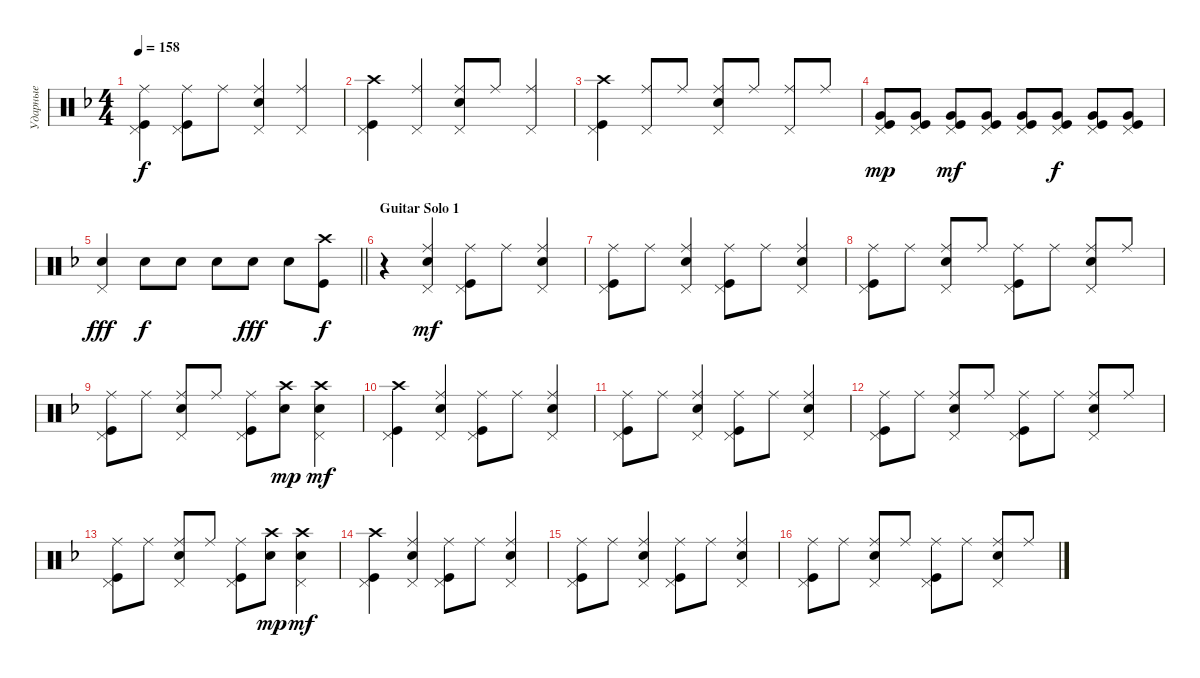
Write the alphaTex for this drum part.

\track ("Ударные" "Ударные") {instrument percussion}
\staff {score}
\articulation defaults
\ts (4 4)
\tempo 158
\clef neutral
\ks dminor
("Kick (hit)" "Pedal Hi-Hat (hit)" "Ride (middle)").4{dy f} ("Kick (hit)" "Pedal Hi-Hat (hit)" "Ride (middle)").8 "Ride (middle)".8 ("Snare (hit) 2" "Pedal Hi-Hat (hit)" "Ride (middle)").4 ("Ride (middle)" "Pedal Hi-Hat (hit)").4 |
("Kick (hit)" "Crash high (hit)" "Pedal Hi-Hat (hit)").4 ("Ride (middle)" "Pedal Hi-Hat (hit)").4 ("Snare (hit) 2" "Pedal Hi-Hat (hit)" "Ride (middle)").8 "Ride (middle)".8 ("Pedal Hi-Hat (hit)" "Ride (middle)").4 |
("Kick (hit)" "Crash high (hit)" "Pedal Hi-Hat (hit)").4 ("Ride (middle)" "Pedal Hi-Hat (hit)").8 "Ride (middle)".8 ("Snare (hit) 2" "Ride (middle)" "Pedal Hi-Hat (hit)").8 "Ride (middle)".8 ("Ride (middle)" "Pedal Hi-Hat (hit)").8 "Ride (middle)".8 |
("Kick (hit)" "Pedal Hi-Hat (hit)" "Very Low Tom (hit)").8{dy mp} ("Kick (hit)" "Pedal Hi-Hat (hit)" "Very Low Tom (hit)").8 ("Kick (hit)" "Pedal Hi-Hat (hit)" "Very Low Tom (hit)").8{dy mf} ("Kick (hit)" "Pedal Hi-Hat (hit)" "Very Low Tom (hit)").8 ("Kick (hit)" "Pedal Hi-Hat (hit)" "Very Low Tom (hit)").8 ("Pedal Hi-Hat (hit)" "Kick (hit)" "Very Low Tom (hit)").8{dy f} ("Kick (hit)" "Pedal Hi-Hat (hit)" "Very Low Tom (hit)").8 ("Kick (hit)" "Pedal Hi-Hat (hit)" "Very Low Tom (hit)").8 |
\barLineRight lightlight
("Snare (hit) 2" "Pedal Hi-Hat (hit)").4{dy fff} "Snare (hit) 2".8{dy f} "Snare (hit) 2".8 "Snare (hit) 2".8 "Snare (hit) 2".8{dy fff} "Snare (hit) 2".8 ("Kick (hit)" "Crash high (hit)").8{dy f} |
\section ("" "Guitar Solo 1")
r.4 ("Ride (middle)" "Snare (hit) 2" "Pedal Hi-Hat (hit)").4{dy mf} ("Ride (middle)" "Kick (hit)" "Pedal Hi-Hat (hit)").8 "Ride (middle)".8 ("Snare (hit) 2" "Pedal Hi-Hat (hit)" "Ride (middle)").4 |
("Ride (middle)" "Kick (hit)" "Pedal Hi-Hat (hit)").8 "Ride (middle)".8 ("Snare (hit) 2" "Pedal Hi-Hat (hit)" "Ride (middle)").4 ("Ride (middle)" "Kick (hit)" "Pedal Hi-Hat (hit)").8 "Ride (middle)".8 ("Snare (hit) 2" "Pedal Hi-Hat (hit)" "Ride (middle)").4 |
("Ride (middle)" "Kick (hit)" "Pedal Hi-Hat (hit)").8 "Ride (middle)".8 ("Snare (hit) 2" "Pedal Hi-Hat (hit)" "Ride (middle)").8 "Ride (middle)".8 ("Ride (middle)" "Kick (hit)" "Pedal Hi-Hat (hit)").8 "Ride (middle)".8 ("Snare (hit) 2" "Pedal Hi-Hat (hit)" "Ride (middle)").8 "Ride (middle)".8 |
("Ride (middle)" "Kick (hit)" "Pedal Hi-Hat (hit)").8 "Ride (middle)".8 ("Snare (hit) 2" "Pedal Hi-Hat (hit)" "Ride (middle)").8 "Ride (middle)".8 ("Ride (middle)" "Kick (hit)" "Pedal Hi-Hat (hit)").8 ("Crash high (hit)" "Snare (hit) 2").8{dy mp} ("Crash high (hit)" "Snare (hit) 2" "Pedal Hi-Hat (hit)").4{dy mf} |
("Kick (hit)" "Crash high (hit)" "Pedal Hi-Hat (hit)").4 ("Ride (middle)" "Snare (hit) 2" "Pedal Hi-Hat (hit)").4 ("Ride (middle)" "Kick (hit)" "Pedal Hi-Hat (hit)").8 "Ride (middle)".8 ("Snare (hit) 2" "Pedal Hi-Hat (hit)" "Ride (middle)").4 |
("Ride (middle)" "Kick (hit)" "Pedal Hi-Hat (hit)").8 "Ride (middle)".8 ("Snare (hit) 2" "Pedal Hi-Hat (hit)" "Ride (middle)").4 ("Ride (middle)" "Kick (hit)" "Pedal Hi-Hat (hit)").8 "Ride (middle)".8 ("Snare (hit) 2" "Pedal Hi-Hat (hit)" "Ride (middle)").4 |
("Ride (middle)" "Kick (hit)" "Pedal Hi-Hat (hit)").8 "Ride (middle)".8 ("Snare (hit) 2" "Pedal Hi-Hat (hit)" "Ride (middle)").8 "Ride (middle)".8 ("Ride (middle)" "Kick (hit)" "Pedal Hi-Hat (hit)").8 "Ride (middle)".8 ("Snare (hit) 2" "Pedal Hi-Hat (hit)" "Ride (middle)").8 "Ride (middle)".8 |
("Ride (middle)" "Kick (hit)" "Pedal Hi-Hat (hit)").8 "Ride (middle)".8 ("Snare (hit) 2" "Pedal Hi-Hat (hit)" "Ride (middle)").8 "Ride (middle)".8 ("Ride (middle)" "Kick (hit)" "Pedal Hi-Hat (hit)").8 ("Crash high (hit)" "Snare (hit) 2").8{dy mp} ("Crash high (hit)" "Snare (hit) 2" "Pedal Hi-Hat (hit)").4{dy mf} |
("Kick (hit)" "Crash high (hit)" "Pedal Hi-Hat (hit)").4 ("Ride (middle)" "Snare (hit) 2" "Pedal Hi-Hat (hit)").4 ("Ride (middle)" "Kick (hit)" "Pedal Hi-Hat (hit)").8 "Ride (middle)".8 ("Snare (hit) 2" "Pedal Hi-Hat (hit)" "Ride (middle)").4 |
("Ride (middle)" "Kick (hit)" "Pedal Hi-Hat (hit)").8 "Ride (middle)".8 ("Snare (hit) 2" "Pedal Hi-Hat (hit)" "Ride (middle)").4 ("Ride (middle)" "Kick (hit)" "Pedal Hi-Hat (hit)").8 "Ride (middle)".8 ("Snare (hit) 2" "Pedal Hi-Hat (hit)" "Ride (middle)").4 |
("Ride (middle)" "Kick (hit)" "Pedal Hi-Hat (hit)").8 "Ride (middle)".8 ("Snare (hit) 2" "Pedal Hi-Hat (hit)" "Ride (middle)").8 "Ride (middle)".8 ("Ride (middle)" "Kick (hit)" "Pedal Hi-Hat (hit)").8 "Ride (middle)".8 ("Snare (hit) 2" "Pedal Hi-Hat (hit)" "Ride (middle)").8 "Ride (middle)".8
